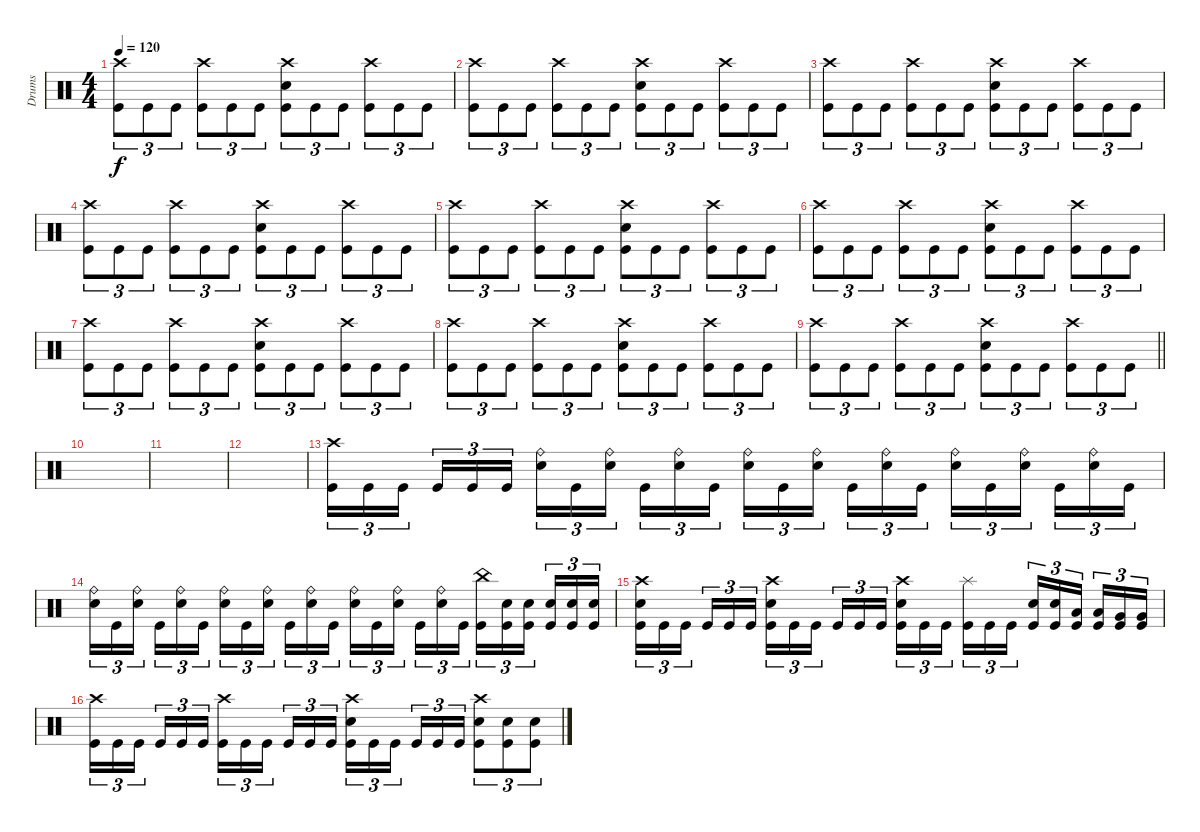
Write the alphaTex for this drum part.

\track ("Drums" "Drums") {instrument percussion}
\staff
\articulation defaults
\ts (4 4)
\tempo 120
\clef neutral
\ks c
("Crash high (hit)" "Kick (hit)").8{tu (3 2) dy f} "Kick (hit)".8{tu (3 2)} "Kick (hit)".8{tu (3 2)} ("Crash high (hit)" "Kick (hit)").8{tu (3 2)} "Kick (hit)".8{tu (3 2)} "Kick (hit)".8{tu (3 2)} ("Crash high (hit)" "Electric Snare (hit)" "Kick (hit)").8{tu (3 2)} "Kick (hit)".8{tu (3 2)} "Kick (hit)".8{tu (3 2)} ("Crash high (hit)" "Kick (hit)").8{tu (3 2)} "Kick (hit)".8{tu (3 2)} "Kick (hit)".8{tu (3 2)} |
("Crash high (hit)" "Kick (hit)").8{tu (3 2)} "Kick (hit)".8{tu (3 2)} "Kick (hit)".8{tu (3 2)} ("Crash high (hit)" "Kick (hit)").8{tu (3 2)} "Kick (hit)".8{tu (3 2)} "Kick (hit)".8{tu (3 2)} ("Crash high (hit)" "Electric Snare (hit)" "Kick (hit)").8{tu (3 2)} "Kick (hit)".8{tu (3 2)} "Kick (hit)".8{tu (3 2)} ("Crash high (hit)" "Kick (hit)").8{tu (3 2)} "Kick (hit)".8{tu (3 2)} "Kick (hit)".8{tu (3 2)} |
("Crash high (hit)" "Kick (hit)").8{tu (3 2)} "Kick (hit)".8{tu (3 2)} "Kick (hit)".8{tu (3 2)} ("Crash high (hit)" "Kick (hit)").8{tu (3 2)} "Kick (hit)".8{tu (3 2)} "Kick (hit)".8{tu (3 2)} ("Crash high (hit)" "Electric Snare (hit)" "Kick (hit)").8{tu (3 2)} "Kick (hit)".8{tu (3 2)} "Kick (hit)".8{tu (3 2)} ("Crash high (hit)" "Kick (hit)").8{tu (3 2)} "Kick (hit)".8{tu (3 2)} "Kick (hit)".8{tu (3 2)} |
("Crash high (hit)" "Kick (hit)").8{tu (3 2)} "Kick (hit)".8{tu (3 2)} "Kick (hit)".8{tu (3 2)} ("Crash high (hit)" "Kick (hit)").8{tu (3 2)} "Kick (hit)".8{tu (3 2)} "Kick (hit)".8{tu (3 2)} ("Crash high (hit)" "Electric Snare (hit)" "Kick (hit)").8{tu (3 2)} "Kick (hit)".8{tu (3 2)} "Kick (hit)".8{tu (3 2)} ("Crash high (hit)" "Kick (hit)").8{tu (3 2)} "Kick (hit)".8{tu (3 2)} "Kick (hit)".8{tu (3 2)} |
("Crash high (hit)" "Kick (hit)").8{tu (3 2)} "Kick (hit)".8{tu (3 2)} "Kick (hit)".8{tu (3 2)} ("Crash high (hit)" "Kick (hit)").8{tu (3 2)} "Kick (hit)".8{tu (3 2)} "Kick (hit)".8{tu (3 2)} ("Crash high (hit)" "Electric Snare (hit)" "Kick (hit)").8{tu (3 2)} "Kick (hit)".8{tu (3 2)} "Kick (hit)".8{tu (3 2)} ("Crash high (hit)" "Kick (hit)").8{tu (3 2)} "Kick (hit)".8{tu (3 2)} "Kick (hit)".8{tu (3 2)} |
("Crash high (hit)" "Kick (hit)").8{tu (3 2)} "Kick (hit)".8{tu (3 2)} "Kick (hit)".8{tu (3 2)} ("Crash high (hit)" "Kick (hit)").8{tu (3 2)} "Kick (hit)".8{tu (3 2)} "Kick (hit)".8{tu (3 2)} ("Crash high (hit)" "Electric Snare (hit)" "Kick (hit)").8{tu (3 2)} "Kick (hit)".8{tu (3 2)} "Kick (hit)".8{tu (3 2)} ("Crash high (hit)" "Kick (hit)").8{tu (3 2)} "Kick (hit)".8{tu (3 2)} "Kick (hit)".8{tu (3 2)} |
("Crash high (hit)" "Kick (hit)").8{tu (3 2)} "Kick (hit)".8{tu (3 2)} "Kick (hit)".8{tu (3 2)} ("Crash high (hit)" "Kick (hit)").8{tu (3 2)} "Kick (hit)".8{tu (3 2)} "Kick (hit)".8{tu (3 2)} ("Crash high (hit)" "Electric Snare (hit)" "Kick (hit)").8{tu (3 2)} "Kick (hit)".8{tu (3 2)} "Kick (hit)".8{tu (3 2)} ("Crash high (hit)" "Kick (hit)").8{tu (3 2)} "Kick (hit)".8{tu (3 2)} "Kick (hit)".8{tu (3 2)} |
("Crash high (hit)" "Kick (hit)").8{tu (3 2)} "Kick (hit)".8{tu (3 2)} "Kick (hit)".8{tu (3 2)} ("Crash high (hit)" "Kick (hit)").8{tu (3 2)} "Kick (hit)".8{tu (3 2)} "Kick (hit)".8{tu (3 2)} ("Crash high (hit)" "Electric Snare (hit)" "Kick (hit)").8{tu (3 2)} "Kick (hit)".8{tu (3 2)} "Kick (hit)".8{tu (3 2)} ("Crash high (hit)" "Kick (hit)").8{tu (3 2)} "Kick (hit)".8{tu (3 2)} "Kick (hit)".8{tu (3 2)} |
\barLineRight lightlight
("Crash high (hit)" "Kick (hit)").8{tu (3 2)} "Kick (hit)".8{tu (3 2)} "Kick (hit)".8{tu (3 2)} ("Crash high (hit)" "Kick (hit)").8{tu (3 2)} "Kick (hit)".8{tu (3 2)} "Kick (hit)".8{tu (3 2)} ("Crash high (hit)" "Electric Snare (hit)" "Kick (hit)").8{tu (3 2)} "Kick (hit)".8{tu (3 2)} "Kick (hit)".8{tu (3 2)} ("Crash high (hit)" "Kick (hit)").8{tu (3 2)} "Kick (hit)".8{tu (3 2)} "Kick (hit)".8{tu (3 2)} |
\section ("" "")
|
|
|
("Crash high (hit)" "Kick (hit)").16{tu (3 2)} "Kick (hit)".16{tu (3 2)} "Kick (hit)".16{tu (3 2) beam splitsecondary} "Kick (hit)".16{tu (3 2)} "Kick (hit)".16{tu (3 2)} "Kick (hit)".16{tu (3 2)} ("Ride (bell)" "Electric Snare (hit)").16{tu (3 2)} "Kick (hit)".16{tu (3 2)} ("Ride (bell)" "Electric Snare (hit)").16{tu (3 2) beam splitsecondary} "Kick (hit)".16{tu (3 2)} ("Ride (bell)" "Electric Snare (hit)").16{tu (3 2)} "Kick (hit)".16{tu (3 2)} ("Ride (bell)" "Electric Snare (hit)").16{tu (3 2)} "Kick (hit)".16{tu (3 2)} ("Ride (bell)" "Electric Snare (hit)").16{tu (3 2) beam splitsecondary} "Kick (hit)".16{tu (3 2)} ("Ride (bell)" "Electric Snare (hit)").16{tu (3 2)} "Kick (hit)".16{tu (3 2)} ("Ride (bell)" "Electric Snare (hit)").16{tu (3 2)} "Kick (hit)".16{tu (3 2)} ("Ride (bell)" "Electric Snare (hit)").16{tu (3 2) beam splitsecondary} "Kick (hit)".16{tu (3 2)} ("Ride (bell)" "Electric Snare (hit)").16{tu (3 2)} "Kick (hit)".16{tu (3 2)} |
("Ride (bell)" "Electric Snare (hit)").16{tu (3 2)} "Kick (hit)".16{tu (3 2)} ("Ride (bell)" "Electric Snare (hit)").16{tu (3 2) beam splitsecondary} "Kick (hit)".16{tu (3 2)} ("Ride (bell)" "Electric Snare (hit)").16{tu (3 2)} "Kick (hit)".16{tu (3 2)} ("Ride (bell)" "Electric Snare (hit)").16{tu (3 2)} "Kick (hit)".16{tu (3 2)} ("Ride (bell)" "Electric Snare (hit)").16{tu (3 2) beam splitsecondary} "Kick (hit)".16{tu (3 2)} ("Ride (bell)" "Electric Snare (hit)").16{tu (3 2)} "Kick (hit)".16{tu (3 2)} ("Ride (bell)" "Electric Snare (hit)").16{tu (3 2)} "Kick (hit)".16{tu (3 2)} ("Ride (bell)" "Electric Snare (hit)").16{tu (3 2) beam splitsecondary} "Kick (hit)".16{tu (3 2)} ("Ride (bell)" "Electric Snare (hit)").16{tu (3 2)} "Kick (hit)".16{tu (3 2)} ("China (hit)" "Kick (hit)").16{tu (3 2)} ("Electric Snare (hit)" "Kick (hit)").16{tu (3 2)} ("Electric Snare (hit)" "Kick (hit)").16{tu (3 2) beam splitsecondary} ("Electric Snare (hit)" "Kick (hit)").16{tu (3 2)} ("Electric Snare (hit)" "Kick (hit)").16{tu (3 2)} ("Electric Snare (hit)" "Kick (hit)").16{tu (3 2)} |
("Crash high (hit)" "Electric Snare (hit)" "Kick (hit)").16{tu (3 2)} "Kick (hit)".16{tu (3 2)} "Kick (hit)".16{tu (3 2) beam splitsecondary} "Kick (hit)".16{tu (3 2)} "Kick (hit)".16{tu (3 2)} "Kick (hit)".16{tu (3 2)} ("Crash high (hit)" "Electric Snare (hit)" "Kick (hit)").16{tu (3 2)} "Kick (hit)".16{tu (3 2)} "Kick (hit)".16{tu (3 2) beam splitsecondary} "Kick (hit)".16{tu (3 2)} "Kick (hit)".16{tu (3 2)} "Kick (hit)".16{tu (3 2)} ("Crash high (hit)" "Electric Snare (hit)" "Kick (hit)").16{tu (3 2)} "Kick (hit)".16{tu (3 2)} "Kick (hit)".16{tu (3 2) beam splitsecondary} ("Splash (hit)" "Kick (hit)").16{tu (3 2)} "Kick (hit)".16{tu (3 2)} "Kick (hit)".16{tu (3 2)} ("Electric Snare (hit)" "Kick (hit)").16{tu (3 2)} ("Electric Snare (hit)" "Kick (hit)").16{tu (3 2)} ("Low Tom (hit)" "Kick (hit)").16{tu (3 2) beam splitsecondary} ("Low Tom (hit)" "Kick (hit)").16{tu (3 2)} ("Very Low Tom (hit)" "Kick (hit)").16{tu (3 2)} ("Very Low Tom (hit)" "Kick (hit)").16{tu (3 2)} |
("Crash high (hit)" "Kick (hit)").16{tu (3 2)} "Kick (hit)".16{tu (3 2)} "Kick (hit)".16{tu (3 2) beam splitsecondary} "Kick (hit)".16{tu (3 2)} "Kick (hit)".16{tu (3 2)} "Kick (hit)".16{tu (3 2)} ("Crash high (hit)" "Kick (hit)").16{tu (3 2)} "Kick (hit)".16{tu (3 2)} "Kick (hit)".16{tu (3 2) beam splitsecondary} "Kick (hit)".16{tu (3 2)} "Kick (hit)".16{tu (3 2)} "Kick (hit)".16{tu (3 2)} ("Crash high (hit)" "Electric Snare (hit)" "Kick (hit)").16{tu (3 2)} "Kick (hit)".16{tu (3 2)} "Kick (hit)".16{tu (3 2) beam splitsecondary} "Kick (hit)".16{tu (3 2)} "Kick (hit)".16{tu (3 2)} "Kick (hit)".16{tu (3 2)} ("Crash high (hit)" "Electric Snare (hit)" "Kick (hit)").8{tu (3 2)} ("Electric Snare (hit)" "Kick (hit)").8{tu (3 2)} ("Electric Snare (hit)" "Kick (hit)").8{tu (3 2)}
